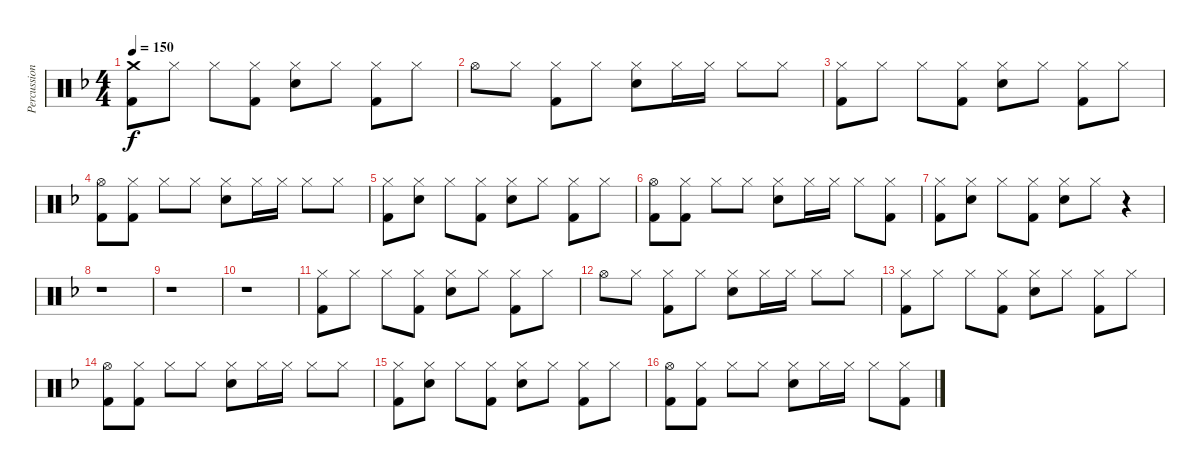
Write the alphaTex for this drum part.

\track ("Percussion" "Percussion") {instrument percussion}
\staff {score}
\articulation defaults
\ts (4 4)
\tempo 150
\clef neutral
\ks f
("Crash medium (hit)" "Kick (hit) 2").8{dy f} "Hi-Hat (closed)".8 "Hi-Hat (closed)".8 ("Hi-Hat (closed)" "Kick (hit) 2").8 ("Hi-Hat (closed)" "Electric Snare (hit)").8 "Hi-Hat (closed)".8 ("Hi-Hat (closed)" "Kick (hit) 2").8 "Hi-Hat (closed)".8 |
"Hi-Hat (open)".8 "Hi-Hat (closed)".8 ("Hi-Hat (closed)" "Kick (hit) 2").8 "Hi-Hat (closed)".8 ("Hi-Hat (closed)" "Electric Snare (hit)").8 "Hi-Hat (closed)".16 "Hi-Hat (closed)".16 "Hi-Hat (closed)".8 "Hi-Hat (closed)".8 |
("Hi-Hat (closed)" "Kick (hit) 2").8 "Hi-Hat (closed)".8 "Hi-Hat (closed)".8 ("Hi-Hat (closed)" "Kick (hit) 2").8 ("Hi-Hat (closed)" "Electric Snare (hit)").8 "Hi-Hat (closed)".8 ("Hi-Hat (closed)" "Kick (hit) 2").8 "Hi-Hat (closed)".8 |
("Hi-Hat (open)" "Kick (hit) 2").8 ("Hi-Hat (closed)" "Kick (hit) 2").8 "Hi-Hat (closed)".8 "Hi-Hat (closed)".8 ("Hi-Hat (closed)" "Electric Snare (hit)").8 "Hi-Hat (closed)".16 "Hi-Hat (closed)".16 "Hi-Hat (closed)".8 "Hi-Hat (closed)".8 |
("Hi-Hat (closed)" "Kick (hit) 2").8 ("Hi-Hat (closed)" "Electric Snare (hit)").8 "Hi-Hat (closed)".8 ("Hi-Hat (closed)" "Kick (hit) 2").8 ("Hi-Hat (closed)" "Electric Snare (hit)").8 "Hi-Hat (closed)".8 ("Hi-Hat (closed)" "Kick (hit) 2").8 "Hi-Hat (closed)".8 |
("Hi-Hat (open)" "Kick (hit) 2").8 ("Hi-Hat (closed)" "Kick (hit) 2").8 "Hi-Hat (closed)".8 "Hi-Hat (closed)".8 ("Hi-Hat (closed)" "Electric Snare (hit)").8 "Hi-Hat (closed)".16 "Hi-Hat (closed)".16 "Hi-Hat (closed)".8 ("Hi-Hat (closed)" "Kick (hit) 2").8 |
("Hi-Hat (closed)" "Kick (hit) 2").8 ("Hi-Hat (closed)" "Electric Snare (hit)").8 "Hi-Hat (closed)".8 ("Hi-Hat (closed)" "Kick (hit) 2").8 ("Hi-Hat (closed)" "Electric Snare (hit)").8 "Hi-Hat (closed)".8 r.4 |
r.1 |
r.1 |
r.1 |
("Hi-Hat (closed)" "Kick (hit) 2").8 "Hi-Hat (closed)".8 "Hi-Hat (closed)".8 ("Hi-Hat (closed)" "Kick (hit) 2").8 ("Hi-Hat (closed)" "Electric Snare (hit)").8 "Hi-Hat (closed)".8 ("Hi-Hat (closed)" "Kick (hit) 2").8 "Hi-Hat (closed)".8 |
"Hi-Hat (open)".8 "Hi-Hat (closed)".8 ("Hi-Hat (closed)" "Kick (hit) 2").8 "Hi-Hat (closed)".8 ("Hi-Hat (closed)" "Electric Snare (hit)").8 "Hi-Hat (closed)".16 "Hi-Hat (closed)".16 "Hi-Hat (closed)".8 "Hi-Hat (closed)".8 |
("Hi-Hat (closed)" "Kick (hit) 2").8 "Hi-Hat (closed)".8 "Hi-Hat (closed)".8 ("Hi-Hat (closed)" "Kick (hit) 2").8 ("Hi-Hat (closed)" "Electric Snare (hit)").8 "Hi-Hat (closed)".8 ("Hi-Hat (closed)" "Kick (hit) 2").8 "Hi-Hat (closed)".8 |
("Hi-Hat (open)" "Kick (hit) 2").8 ("Hi-Hat (closed)" "Kick (hit) 2").8 "Hi-Hat (closed)".8 "Hi-Hat (closed)".8 ("Hi-Hat (closed)" "Electric Snare (hit)").8 "Hi-Hat (closed)".16 "Hi-Hat (closed)".16 "Hi-Hat (closed)".8 "Hi-Hat (closed)".8 |
("Hi-Hat (closed)" "Kick (hit) 2").8 ("Hi-Hat (closed)" "Electric Snare (hit)").8 "Hi-Hat (closed)".8 ("Hi-Hat (closed)" "Kick (hit) 2").8 ("Hi-Hat (closed)" "Electric Snare (hit)").8 "Hi-Hat (closed)".8 ("Hi-Hat (closed)" "Kick (hit) 2").8 "Hi-Hat (closed)".8 |
("Hi-Hat (open)" "Kick (hit) 2").8 ("Hi-Hat (closed)" "Kick (hit) 2").8 "Hi-Hat (closed)".8 "Hi-Hat (closed)".8 ("Hi-Hat (closed)" "Electric Snare (hit)").8 "Hi-Hat (closed)".16 "Hi-Hat (closed)".16 "Hi-Hat (closed)".8 ("Hi-Hat (closed)" "Kick (hit) 2").8
